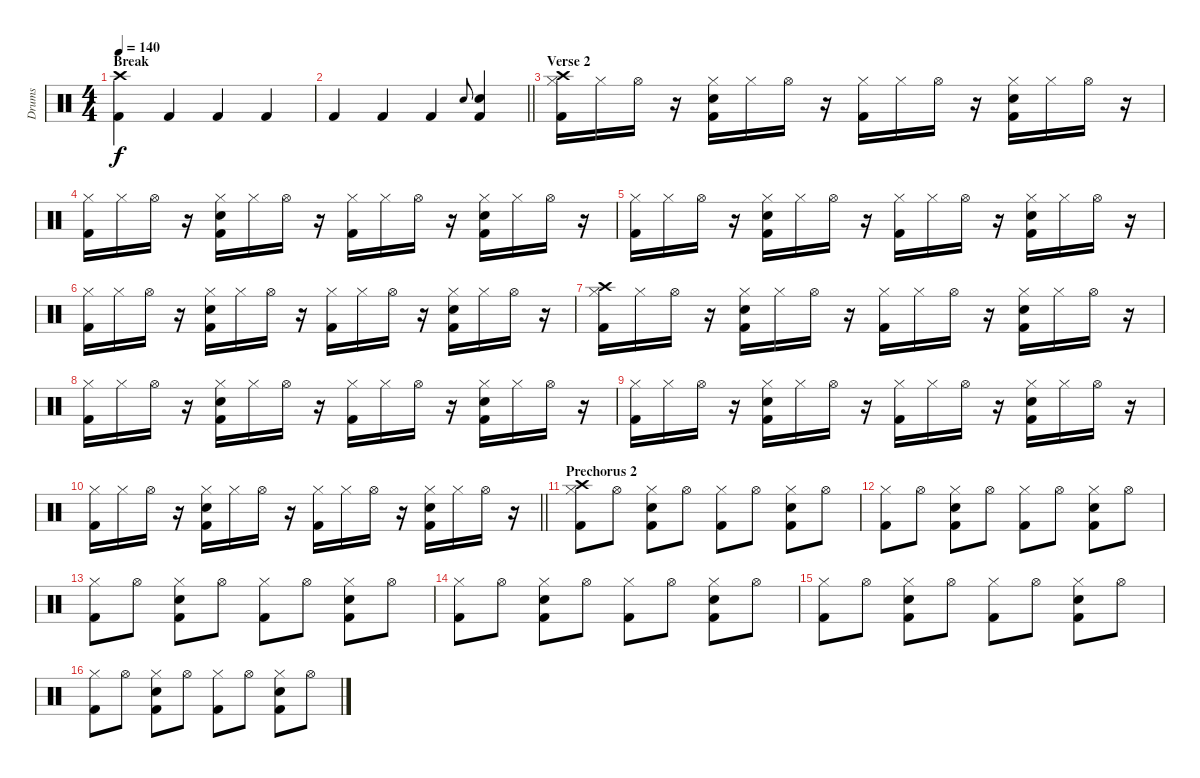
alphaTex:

\track ("Drums" "Drums") {instrument percussion}
\staff {score}
\articulation defaults
\ts (4 4)
\section ("" "Break")
\tempo 140
\clef neutral
\ks c
("Crash high (hit)" "Kick (hit) 2").4{dy f} "Kick (hit) 2".4 "Kick (hit) 2".4 "Kick (hit) 2".4 |
\barLineRight lightlight "Kick (hit) 2".4 "Kick (hit) 2".4 "Kick (hit) 2".4 "Snare (hit) 2".8{gr onbeat}
("Snare (hit) 2" "Kick (hit) 2").4 |
\section ("" "Verse 2")
("Crash high (hit)" "Hi-Hat (closed)" "Kick (hit) 2").16 "Hi-Hat (closed)".16 "Hi-Hat (open)".16 r.16 ("Hi-Hat (closed)" "Snare (hit) 2" "Kick (hit) 2").16 "Hi-Hat (closed)".16 "Hi-Hat (open)".16 r.16 ("Hi-Hat (closed)" "Kick (hit) 2").16 "Hi-Hat (closed)".16 "Hi-Hat (open)".16 r.16 ("Hi-Hat (closed)" "Snare (hit) 2" "Kick (hit) 2").16 "Hi-Hat (closed)".16 "Hi-Hat (open)".16 r.16 |
("Hi-Hat (closed)" "Kick (hit) 2").16 "Hi-Hat (closed)".16 "Hi-Hat (open)".16 r.16 ("Hi-Hat (closed)" "Snare (hit) 2" "Kick (hit) 2").16 "Hi-Hat (closed)".16 "Hi-Hat (open)".16 r.16 ("Hi-Hat (closed)" "Kick (hit) 2").16 "Hi-Hat (closed)".16 "Hi-Hat (open)".16 r.16 ("Hi-Hat (closed)" "Snare (hit) 2" "Kick (hit) 2").16 "Hi-Hat (closed)".16 "Hi-Hat (open)".16 r.16 |
("Hi-Hat (closed)" "Kick (hit) 2").16 "Hi-Hat (closed)".16 "Hi-Hat (open)".16 r.16 ("Hi-Hat (closed)" "Snare (hit) 2" "Kick (hit) 2").16 "Hi-Hat (closed)".16 "Hi-Hat (open)".16 r.16 ("Hi-Hat (closed)" "Kick (hit) 2").16 "Hi-Hat (closed)".16 "Hi-Hat (open)".16 r.16 ("Hi-Hat (closed)" "Snare (hit) 2" "Kick (hit) 2").16 "Hi-Hat (closed)".16 "Hi-Hat (open)".16 r.16 |
("Hi-Hat (closed)" "Kick (hit) 2").16 "Hi-Hat (closed)".16 "Hi-Hat (open)".16 r.16 ("Hi-Hat (closed)" "Snare (hit) 2" "Kick (hit) 2").16 "Hi-Hat (closed)".16 "Hi-Hat (open)".16 r.16 ("Hi-Hat (closed)" "Kick (hit) 2").16 "Hi-Hat (closed)".16 "Hi-Hat (open)".16 r.16 ("Hi-Hat (closed)" "Snare (hit) 2" "Kick (hit) 2").16 "Hi-Hat (closed)".16 "Hi-Hat (open)".16 r.16 |
("Crash high (hit)" "Hi-Hat (closed)" "Kick (hit) 2").16 "Hi-Hat (closed)".16 "Hi-Hat (open)".16 r.16 ("Hi-Hat (closed)" "Snare (hit) 2" "Kick (hit) 2").16 "Hi-Hat (closed)".16 "Hi-Hat (open)".16 r.16 ("Hi-Hat (closed)" "Kick (hit) 2").16 "Hi-Hat (closed)".16 "Hi-Hat (open)".16 r.16 ("Hi-Hat (closed)" "Snare (hit) 2" "Kick (hit) 2").16 "Hi-Hat (closed)".16 "Hi-Hat (open)".16 r.16 |
("Hi-Hat (closed)" "Kick (hit) 2").16 "Hi-Hat (closed)".16 "Hi-Hat (open)".16 r.16 ("Hi-Hat (closed)" "Snare (hit) 2" "Kick (hit) 2").16 "Hi-Hat (closed)".16 "Hi-Hat (open)".16 r.16 ("Hi-Hat (closed)" "Kick (hit) 2").16 "Hi-Hat (closed)".16 "Hi-Hat (open)".16 r.16 ("Hi-Hat (closed)" "Snare (hit) 2" "Kick (hit) 2").16 "Hi-Hat (closed)".16 "Hi-Hat (open)".16 r.16 |
("Hi-Hat (closed)" "Kick (hit) 2").16 "Hi-Hat (closed)".16 "Hi-Hat (open)".16 r.16 ("Hi-Hat (closed)" "Snare (hit) 2" "Kick (hit) 2").16 "Hi-Hat (closed)".16 "Hi-Hat (open)".16 r.16 ("Hi-Hat (closed)" "Kick (hit) 2").16 "Hi-Hat (closed)".16 "Hi-Hat (open)".16 r.16 ("Hi-Hat (closed)" "Snare (hit) 2" "Kick (hit) 2").16 "Hi-Hat (closed)".16 "Hi-Hat (open)".16 r.16 |
\barLineRight lightlight
("Hi-Hat (closed)" "Kick (hit) 2").16 "Hi-Hat (closed)".16 "Hi-Hat (open)".16 r.16 ("Hi-Hat (closed)" "Snare (hit) 2" "Kick (hit) 2").16 "Hi-Hat (closed)".16 "Hi-Hat (open)".16 r.16 ("Hi-Hat (closed)" "Kick (hit) 2").16 "Hi-Hat (closed)".16 "Hi-Hat (open)".16 r.16 ("Hi-Hat (closed)" "Snare (hit) 2" "Kick (hit) 2").16 "Hi-Hat (closed)".16 "Hi-Hat (open)".16 r.16 |
\section ("" "Prechorus 2")
("Crash high (hit)" "Hi-Hat (closed)" "Kick (hit) 2").8 "Hi-Hat (open)".8 ("Hi-Hat (closed)" "Snare (hit) 2" "Kick (hit) 2").8 "Hi-Hat (open)".8 ("Hi-Hat (closed)" "Kick (hit) 2").8 "Hi-Hat (open)".8 ("Hi-Hat (closed)" "Snare (hit) 2" "Kick (hit) 2").8 "Hi-Hat (open)".8 |
("Hi-Hat (closed)" "Kick (hit) 2").8 "Hi-Hat (open)".8 ("Hi-Hat (closed)" "Snare (hit) 2" "Kick (hit) 2").8 "Hi-Hat (open)".8 ("Hi-Hat (closed)" "Kick (hit) 2").8 "Hi-Hat (open)".8 ("Hi-Hat (closed)" "Snare (hit) 2" "Kick (hit) 2").8 "Hi-Hat (open)".8 |
("Hi-Hat (closed)" "Kick (hit) 2").8 "Hi-Hat (open)".8 ("Hi-Hat (closed)" "Snare (hit) 2" "Kick (hit) 2").8 "Hi-Hat (open)".8 ("Hi-Hat (closed)" "Kick (hit) 2").8 "Hi-Hat (open)".8 ("Hi-Hat (closed)" "Snare (hit) 2" "Kick (hit) 2").8 "Hi-Hat (open)".8 |
("Hi-Hat (closed)" "Kick (hit) 2").8 "Hi-Hat (open)".8 ("Hi-Hat (closed)" "Snare (hit) 2" "Kick (hit) 2").8 "Hi-Hat (open)".8 ("Hi-Hat (closed)" "Kick (hit) 2").8 "Hi-Hat (open)".8 ("Hi-Hat (closed)" "Snare (hit) 2" "Kick (hit) 2").8 "Hi-Hat (open)".8 |
("Hi-Hat (closed)" "Kick (hit) 2").8 "Hi-Hat (open)".8 ("Hi-Hat (closed)" "Snare (hit) 2" "Kick (hit) 2").8 "Hi-Hat (open)".8 ("Hi-Hat (closed)" "Kick (hit) 2").8 "Hi-Hat (open)".8 ("Hi-Hat (closed)" "Snare (hit) 2" "Kick (hit) 2").8 "Hi-Hat (open)".8 |
("Hi-Hat (closed)" "Kick (hit) 2").8 "Hi-Hat (open)".8 ("Hi-Hat (closed)" "Snare (hit) 2" "Kick (hit) 2").8 "Hi-Hat (open)".8 ("Hi-Hat (closed)" "Kick (hit) 2").8 "Hi-Hat (open)".8 ("Hi-Hat (closed)" "Snare (hit) 2" "Kick (hit) 2").8 "Hi-Hat (open)".8
